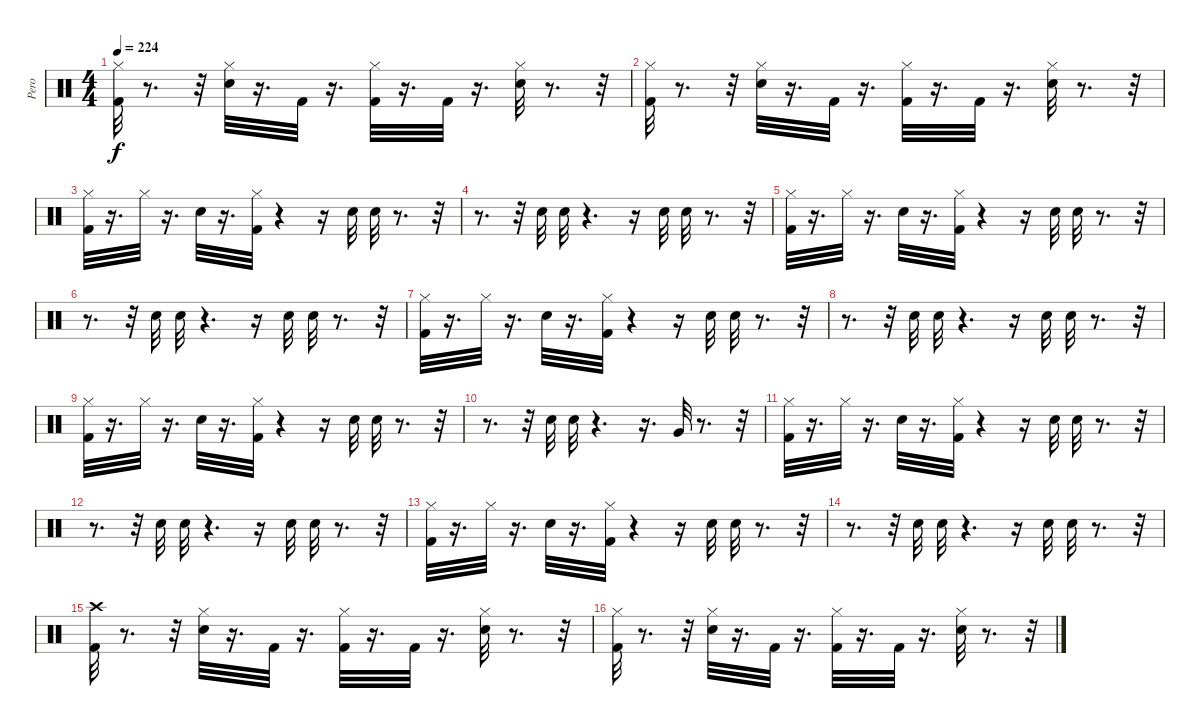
\track ("Pero" "Pero") {instrument percussion}
\staff {score}
\articulation defaults
\ts (4 4)
\tempo 224
\clef neutral
\ks c
("Kick (hit) 2" "Hi-Hat (closed)").32{dy f} r.8{d} r.32 ("Hi-Hat (closed)" "Snare (hit) 2").32 r.16{d} "Kick (hit) 2".32 r.16{d} ("Hi-Hat (closed)" "Kick (hit) 2").32 r.16{d} "Kick (hit) 2".32 r.16{d} ("Hi-Hat (closed)" "Snare (hit) 2").32 r.8{d} r.32 |
("Kick (hit) 2" "Hi-Hat (closed)").32 r.8{d} r.32 ("Hi-Hat (closed)" "Snare (hit) 2").32 r.16{d} "Kick (hit) 2".32 r.16{d} ("Hi-Hat (closed)" "Kick (hit) 2").32 r.16{d} "Kick (hit) 2".32 r.16{d} ("Hi-Hat (closed)" "Snare (hit) 2").32 r.8{d} r.32 |
("Hi-Hat (closed)" "Kick (hit) 2").32 r.16{d} "Hi-Hat (closed)".32 r.16{d} "Snare (hit) 2".32 r.16{d} ("Hi-Hat (closed)" "Kick (hit) 2").32 r.4 r.16 "Snare (hit) 2".32 "Snare (hit) 2".32 r.8{d} r.32 |
r.8{d} r.32 "Snare (hit) 2".32 "Snare (hit) 2".32 r.4{d} r.16 "Snare (hit) 2".32 "Snare (hit) 2".32 r.8{d} r.32 |
("Hi-Hat (closed)" "Kick (hit) 2").32 r.16{d} "Hi-Hat (closed)".32 r.16{d} "Snare (hit) 2".32 r.16{d} ("Hi-Hat (closed)" "Kick (hit) 2").32 r.4 r.16 "Snare (hit) 2".32 "Snare (hit) 2".32 r.8{d} r.32 |
r.8{d} r.32 "Snare (hit) 2".32 "Snare (hit) 2".32 r.4{d} r.16 "Snare (hit) 2".32 "Snare (hit) 2".32 r.8{d} r.32 |
("Hi-Hat (closed)" "Kick (hit) 2").32 r.16{d} "Hi-Hat (closed)".32 r.16{d} "Snare (hit) 2".32 r.16{d} ("Hi-Hat (closed)" "Kick (hit) 2").32 r.4 r.16 "Snare (hit) 2".32 "Snare (hit) 2".32 r.8{d} r.32 |
r.8{d} r.32 "Snare (hit) 2".32 "Snare (hit) 2".32 r.4{d} r.16 "Snare (hit) 2".32 "Snare (hit) 2".32 r.8{d} r.32 |
("Hi-Hat (closed)" "Kick (hit) 2").32 r.16{d} "Hi-Hat (closed)".32 r.16{d} "Snare (hit) 2".32 r.16{d} ("Hi-Hat (closed)" "Kick (hit) 2").32 r.4 r.16 "Snare (hit) 2".32 "Snare (hit) 2".32 r.8{d} r.32 |
r.8{d} r.32 "Snare (hit) 2".32 "Snare (hit) 2".32 r.4{d} r.16{d} "Very Low Tom (hit)".32 r.8{d} r.32 |
("Hi-Hat (closed)" "Kick (hit) 2").32 r.16{d} "Hi-Hat (closed)".32 r.16{d} "Snare (hit) 2".32 r.16{d} ("Hi-Hat (closed)" "Kick (hit) 2").32 r.4 r.16 "Snare (hit) 2".32 "Snare (hit) 2".32 r.8{d} r.32 |
r.8{d} r.32 "Snare (hit) 2".32 "Snare (hit) 2".32 r.4{d} r.16 "Snare (hit) 2".32 "Snare (hit) 2".32 r.8{d} r.32 |
("Hi-Hat (closed)" "Kick (hit) 2").32 r.16{d} "Hi-Hat (closed)".32 r.16{d} "Snare (hit) 2".32 r.16{d} ("Hi-Hat (closed)" "Kick (hit) 2").32 r.4 r.16 "Snare (hit) 2".32 "Snare (hit) 2".32 r.8{d} r.32 |
r.8{d} r.32 "Snare (hit) 2".32 "Snare (hit) 2".32 r.4{d} r.16 "Snare (hit) 2".32 "Snare (hit) 2".32 r.8{d} r.32 |
("Crash high (hit)" "Kick (hit) 2").32 r.8{d} r.32 ("Hi-Hat (closed)" "Snare (hit) 2").32 r.16{d} "Kick (hit) 2".32 r.16{d} ("Hi-Hat (closed)" "Kick (hit) 2").32 r.16{d} "Kick (hit) 2".32 r.16{d} ("Hi-Hat (closed)" "Snare (hit) 2").32 r.8{d} r.32 |
("Kick (hit) 2" "Hi-Hat (closed)").32 r.8{d} r.32 ("Hi-Hat (closed)" "Snare (hit) 2").32 r.16{d} "Kick (hit) 2".32 r.16{d} ("Hi-Hat (closed)" "Kick (hit) 2").32 r.16{d} "Kick (hit) 2".32 r.16{d} ("Hi-Hat (closed)" "Snare (hit) 2").32 r.8{d} r.32
